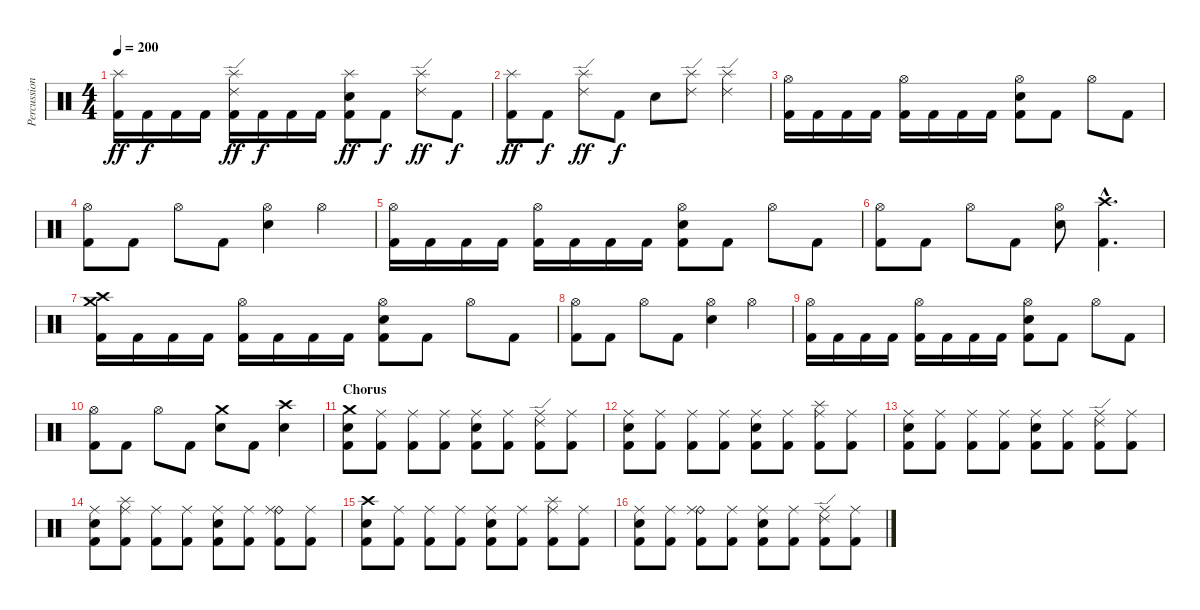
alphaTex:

\track ("Percussions" "Percussion") {instrument percussion}
\staff {score}
\articulation defaults
\ts (4 4)
\tempo 200
\clef neutral
\ks c
("Splash (hit)" "Kick (hit) 2").16{dy ff} "Kick (hit) 2".16{dy f} "Kick (hit) 2".16 "Kick (hit) 2".16 ("Ride (edge) 2" "Splash (hit)" "Kick (hit) 2").16{dy ff} "Kick (hit) 2".16{dy f} "Kick (hit) 2".16 "Kick (hit) 2".16 ("Splash (hit)" "Electric Snare (hit)" "Kick (hit) 2").8{dy ff} "Kick (hit) 2".8{dy f} ("Ride (edge) 2" "Splash (hit)").8{dy ff} "Kick (hit) 2".8{dy f} |
("Splash (hit)" "Kick (hit) 2").8{dy ff} "Kick (hit) 2".8{dy f} ("Ride (edge) 2" "Splash (hit)").8{dy ff} "Kick (hit) 2".8{dy f} "Electric Snare (hit)".8 ("Ride (edge) 2" "Splash (hit)").8 ("Ride (edge) 2" "Splash (hit)").4 |
("Hi-Hat (open)" "Kick (hit) 2").16 "Kick (hit) 2".16 "Kick (hit) 2".16 "Kick (hit) 2".16 ("Hi-Hat (open)" "Kick (hit) 2").16 "Kick (hit) 2".16 "Kick (hit) 2".16 "Kick (hit) 2".16 ("Hi-Hat (open)" "Electric Snare (hit)" "Kick (hit) 2").8 "Kick (hit) 2".8 "Hi-Hat (open)".8 "Kick (hit) 2".8 |
("Hi-Hat (open)" "Kick (hit) 2").8 "Kick (hit) 2".8 "Hi-Hat (open)".8 "Kick (hit) 2".8 ("Hi-Hat (open)" "Electric Snare (hit)").4 "Hi-Hat (open)".4 |
("Hi-Hat (open)" "Kick (hit) 2").16 "Kick (hit) 2".16 "Kick (hit) 2".16 "Kick (hit) 2".16 ("Hi-Hat (open)" "Kick (hit) 2").16 "Kick (hit) 2".16 "Kick (hit) 2".16 "Kick (hit) 2".16 ("Hi-Hat (open)" "Electric Snare (hit)" "Kick (hit) 2").8 "Kick (hit) 2".8 "Hi-Hat (open)".8 "Kick (hit) 2".8 |
("Hi-Hat (open)" "Kick (hit) 2").8 "Kick (hit) 2".8 "Hi-Hat (open)".8 "Kick (hit) 2".8 ("Hi-Hat (open)" "Electric Snare (hit)").8 ("Crash high (hit)"{hac} "Kick (hit) 2"{hac}).4{d} |
("Crash high (hit)" "Crash medium (hit)" "Kick (hit) 2").16 "Kick (hit) 2".16 "Kick (hit) 2".16 "Kick (hit) 2".16 ("Hi-Hat (open)" "Kick (hit) 2").16 "Kick (hit) 2".16 "Kick (hit) 2".16 "Kick (hit) 2".16 ("Hi-Hat (open)" "Electric Snare (hit)" "Kick (hit) 2").8 "Kick (hit) 2".8 "Hi-Hat (open)".8 "Kick (hit) 2".8 |
("Hi-Hat (open)" "Kick (hit) 2").8 "Kick (hit) 2".8 "Hi-Hat (open)".8 "Kick (hit) 2".8 ("Hi-Hat (open)" "Electric Snare (hit)").4 "Hi-Hat (open)".4 |
("Hi-Hat (open)" "Kick (hit) 2").16 "Kick (hit) 2".16 "Kick (hit) 2".16 "Kick (hit) 2".16 ("Hi-Hat (open)" "Kick (hit) 2").16 "Kick (hit) 2".16 "Kick (hit) 2".16 "Kick (hit) 2".16 ("Hi-Hat (open)" "Electric Snare (hit)" "Kick (hit) 2").8 "Kick (hit) 2".8 "Hi-Hat (open)".8 "Kick (hit) 2".8 |
("Hi-Hat (open)" "Kick (hit) 2").8 "Kick (hit) 2".8 "Hi-Hat (open)".8 "Kick (hit) 2".8 ("Crash medium (hit)" "Electric Snare (hit)").8 "Kick (hit) 2".8 ("Crash high (hit)" "Electric Snare (hit)").4 |
\section ("" "Chorus")
("Crash medium (hit)" "Electric Snare (hit)" "Kick (hit) 2").8 ("Ride (middle)" "Kick (hit) 2").8 ("Ride (middle)" "Kick (hit) 2").8 ("Ride (middle)" "Kick (hit) 2").8 ("Ride (middle)" "Electric Snare (hit)" "Kick (hit) 2").8 ("Ride (middle)" "Kick (hit) 2").8 ("Ride (edge) 2" "Ride (middle)" "Kick (hit) 2").8 ("Ride (middle)" "Kick (hit) 2").8 |
("Ride (middle)" "Electric Snare (hit)" "Kick (hit) 2").8 ("Ride (middle)" "Kick (hit) 2").8 ("Ride (middle)" "Kick (hit) 2").8 ("Ride (middle)" "Kick (hit) 2").8 ("Ride (middle)" "Electric Snare (hit)" "Kick (hit) 2").8 ("Ride (middle)" "Kick (hit) 2").8 ("Splash (hit)" "Ride (middle)" "Kick (hit) 2").8 ("Ride (middle)" "Kick (hit) 2").8 |
("Ride (middle)" "Electric Snare (hit)" "Kick (hit) 2").8 ("Ride (middle)" "Kick (hit) 2").8 ("Ride (middle)" "Kick (hit) 2").8 ("Ride (middle)" "Kick (hit) 2").8 ("Ride (middle)" "Electric Snare (hit)" "Kick (hit) 2").8 ("Ride (middle)" "Kick (hit) 2").8 ("Ride (edge) 2" "Ride (middle)" "Kick (hit) 2").8 ("Ride (middle)" "Kick (hit) 2").8 |
("Ride (middle)" "Electric Snare (hit)" "Kick (hit) 2").8 ("Splash (hit)" "Ride (middle)" "Kick (hit) 2").8 ("Ride (middle)" "Kick (hit) 2").8 ("Ride (middle)" "Kick (hit) 2").8 ("Ride (middle)" "Electric Snare (hit)" "Kick (hit) 2").8 ("Ride (middle)" "Kick (hit) 2").8 ("Ride (bell)" "Ride (middle)" "Kick (hit) 2").8 ("Ride (middle)" "Kick (hit) 2").8 |
("Crash high (hit)" "Electric Snare (hit)" "Kick (hit) 2").8 ("Ride (middle)" "Kick (hit) 2").8 ("Ride (middle)" "Kick (hit) 2").8 ("Ride (middle)" "Kick (hit) 2").8 ("Ride (middle)" "Electric Snare (hit)" "Kick (hit) 2").8 ("Ride (middle)" "Kick (hit) 2").8 ("Splash (hit)" "Ride (middle)" "Kick (hit) 2").8 ("Ride (middle)" "Kick (hit) 2").8 |
("Ride (middle)" "Electric Snare (hit)" "Kick (hit) 2").8 ("Ride (middle)" "Kick (hit) 2").8 ("Ride (bell)" "Ride (middle)" "Kick (hit) 2").8 ("Ride (middle)" "Kick (hit) 2").8 ("Ride (middle)" "Electric Snare (hit)" "Kick (hit) 2").8 ("Ride (middle)" "Kick (hit) 2").8 ("Ride (edge) 2" "Ride (middle)" "Kick (hit) 2").8 ("Ride (middle)" "Kick (hit) 2").8
